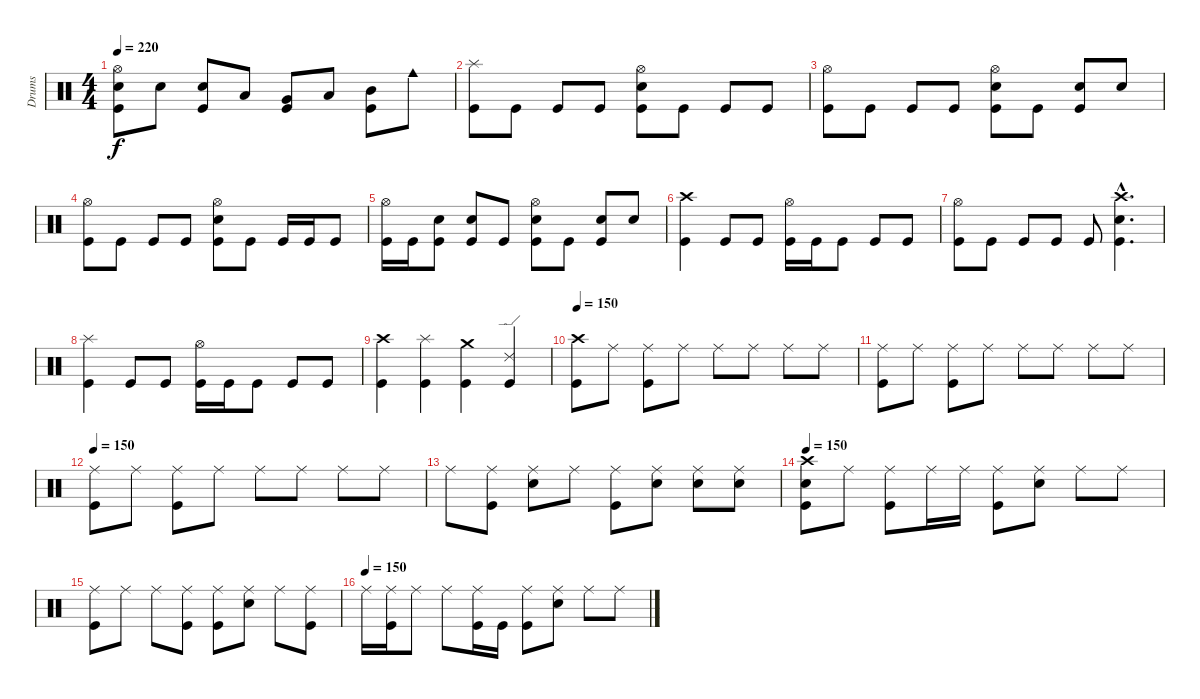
\track ("Drums" "Drums") {instrument percussion}
\staff {score}
\articulation defaults
\ts (4 4)
\tempo 220
\clef neutral
\ks c
("Hi-Hat (open)" "Electric Snare (hit)" "Kick (hit)").8{dy f} "Electric Snare (hit)".8 ("Snare (hit) 2" "Kick (hit)").8 "Low Floor Tom (hit)".8 ("Very Low Tom (hit)" "Kick (hit)").8 "Low Tom (hit)".8 ("Mid Tom (hit)" "Kick (hit)").8 "Cowbell medium (hit)".8 |
("Splash (hit)" "Kick (hit)").8 "Kick (hit)".8 "Kick (hit)".8 "Kick (hit)".8 ("Hi-Hat (open)" "Electric Snare (hit)" "Kick (hit)").8 "Kick (hit)".8 "Kick (hit)".8 "Kick (hit)".8 |
("Hi-Hat (open)" "Kick (hit)").8 "Kick (hit)".8 "Kick (hit)".8 "Kick (hit)".8 ("Hi-Hat (open)" "Electric Snare (hit)" "Kick (hit)").8 "Kick (hit)".8 ("Snare (hit) 2" "Kick (hit)").8 "Snare (hit) 2".8 |
("Hi-Hat (open)" "Kick (hit)").8 "Kick (hit)".8 "Kick (hit)".8 "Kick (hit)".8 ("Hi-Hat (open)" "Electric Snare (hit)" "Kick (hit)").8 "Kick (hit)".8 "Kick (hit)".16 "Kick (hit)".16 "Kick (hit)".8 |
("Hi-Hat (open)" "Kick (hit)").16 "Kick (hit)".16 ("Electric Snare (hit)" "Kick (hit)").8 ("Electric Snare (hit)" "Kick (hit)").8 "Kick (hit)".8 ("Hi-Hat (open)" "Electric Snare (hit)" "Kick (hit)").8 "Kick (hit)".8 ("Electric Snare (hit)" "Kick (hit)").8 "Snare (hit) 2".8 |
("Crash high (hit)" "Kick (hit)").4 "Kick (hit)".8 "Kick (hit)".8 ("Hi-Hat (open)" "Kick (hit)").16 "Kick (hit)".16 "Kick (hit)".8 "Kick (hit)".8 "Kick (hit)".8 |
("Hi-Hat (open)" "Kick (hit)").8 "Kick (hit)".8 "Kick (hit)".8 "Kick (hit)".8 "Kick (hit)".8 ("Crash high (hit)"{hac} "Electric Snare (hit)"{hac} "Kick (hit)"{hac}).4{d} |
("Splash (hit)" "Kick (hit)").4 "Kick (hit)".8 "Kick (hit)".8 ("Hi-Hat (open)" "Kick (hit)").16 "Kick (hit)".16 "Kick (hit)".8 "Kick (hit)".8 "Kick (hit)".8 |
("Crash high (hit)" "Kick (hit)").4 ("Splash (hit)" "Kick (hit)").4 ("Crash medium (hit)" "Kick (hit)").4 ("Ride (edge) 2" "Kick (hit)").4 |
\tempo 150
("Crash high (hit)" "Kick (hit)").8 "Ride (middle)".8 ("Ride (middle)" "Kick (hit)").8 "Ride (middle)".8 "Ride (middle)".8 "Ride (middle)".8 "Ride (middle)".8 "Ride (middle)".8 |
("Ride (middle)" "Kick (hit)").8 "Ride (middle)".8 ("Ride (middle)" "Kick (hit)").8 "Ride (middle)".8 "Ride (middle)".8 "Ride (middle)".8 "Ride (middle)".8 "Ride (middle)".8 |
\tempo 150
("Ride (middle)" "Kick (hit)").8 "Ride (middle)".8 ("Ride (middle)" "Kick (hit)").8 "Ride (middle)".8 "Ride (middle)".8 "Ride (middle)".8 "Ride (middle)".8 "Ride (middle)".8 |
"Ride (middle)".8 ("Ride (middle)" "Kick (hit)").8 ("Ride (middle)" "Electric Snare (hit)").8 "Ride (middle)".8 ("Ride (middle)" "Kick (hit)").8 ("Ride (middle)" "Electric Snare (hit)").8 ("Ride (middle)" "Electric Snare (hit)").8 ("Ride (middle)" "Electric Snare (hit)").8 |
\tempo 150
("Crash high (hit)" "Electric Snare (hit)" "Kick (hit)").8 "Ride (middle)".8 ("Ride (middle)" "Kick (hit)").8 "Ride (middle)".16 "Ride (middle)".16 ("Ride (middle)" "Kick (hit)").8 ("Ride (middle)" "Electric Snare (hit)").8 "Ride (middle)".8 "Ride (middle)".8 |
("Ride (middle)" "Kick (hit)").8 "Ride (middle)".8 "Ride (middle)".8 ("Ride (middle)" "Kick (hit)").8 ("Ride (middle)" "Kick (hit)").8 ("Ride (middle)" "Electric Snare (hit)").8 "Ride (middle)".8 ("Ride (middle)" "Kick (hit)").8 |
\tempo (150)
"Ride (middle)".16 ("Ride (middle)" "Kick (hit)").16 "Ride (middle)".8 "Ride (middle)".8 ("Ride (middle)" "Kick (hit)").16 "Kick (hit)".16 ("Ride (middle)" "Kick (hit)").8 ("Ride (middle)" "Electric Snare (hit)").8 "Ride (middle)".8 "Ride (middle)".8
